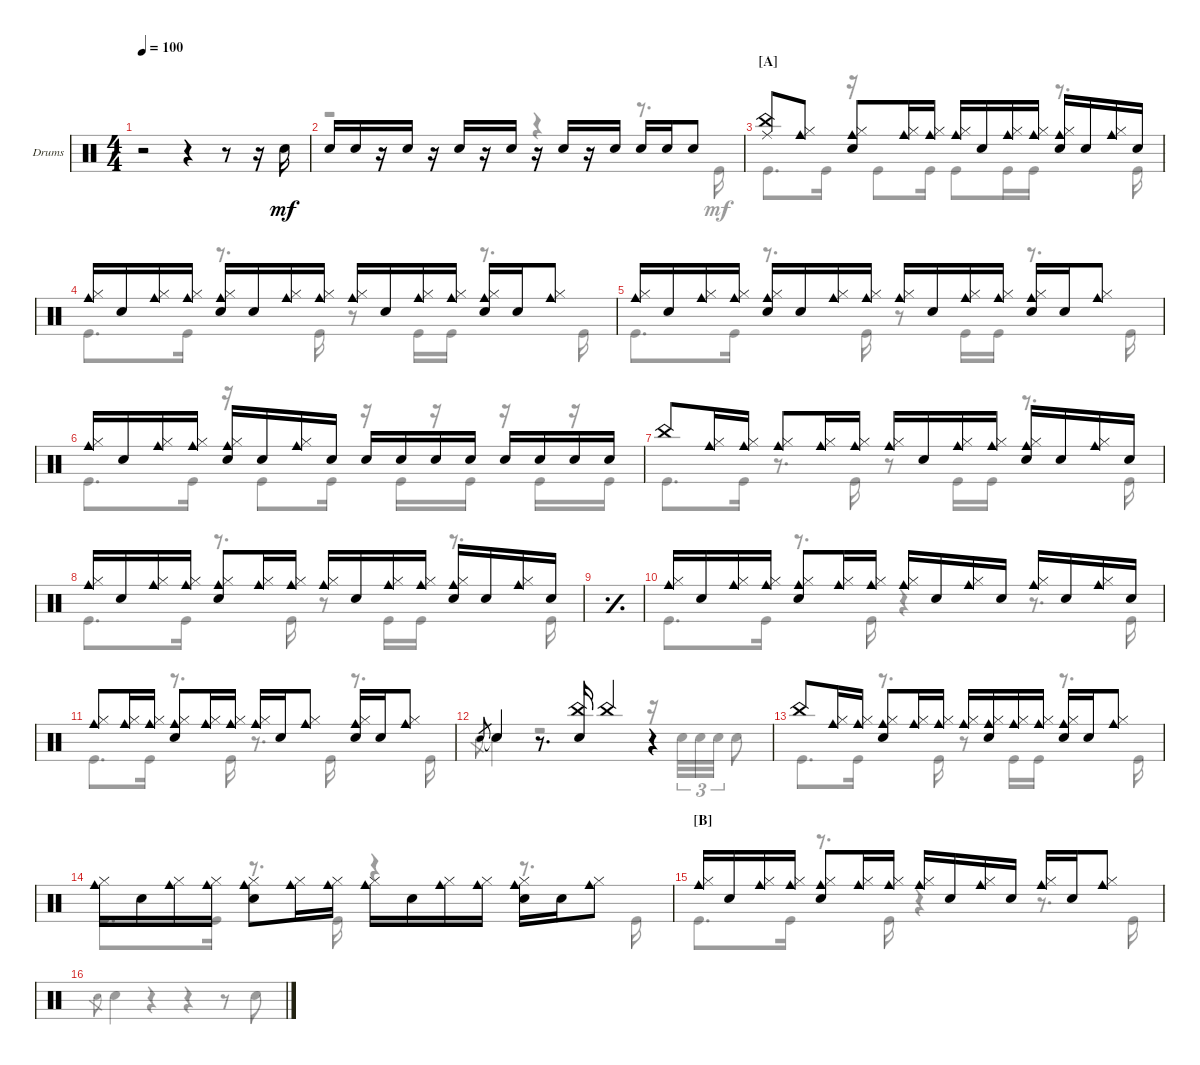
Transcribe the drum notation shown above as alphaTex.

\defaultSystemsLayout 4
\bracketExtendMode groupsimilarinstruments
\firstSystemTrackNameOrientation horizontal
\otherSystemsTrackNameOrientation horizontal
\track ("John Bonham" "Drums") {instrument percussion}
\staff {score}
\articulation defaults
\voice
\ts (4 4)
\tempo 100
\clef neutral
\ks c
r.2{dy mf} r.4 r.8 r.16 "Snare (hit) 2".16 |
\section ("" "")
"Snare (hit) 2".16 "Snare (hit) 2".16 r.16 "Snare (hit) 2".16 r.16 "Snare (hit) 2".16 r.16 "Snare (hit) 2".16 r.16 "Snare (hit) 2".16 r.16 "Snare (hit) 2".16 "Snare (hit) 2".16 "Snare (hit) 2".16 "Snare (hit) 2".8 |
\section ("A" "")
("China (hit)" "Ride (middle)").8 ("Hi-Hat (closed)" "Cowbell medium (hit)").8 ("Hi-Hat (closed)" "Cowbell medium (hit)" "Snare (hit) 2").8 ("Hi-Hat (closed)" "Cowbell medium (hit)").16 ("Hi-Hat (closed)" "Cowbell medium (hit)").16 ("Hi-Hat (closed)" "Cowbell medium (hit)").16 "Snare (hit) 2".16 ("Hi-Hat (closed)" "Cowbell medium (hit)").16 ("Hi-Hat (closed)" "Cowbell medium (hit)").16 ("Hi-Hat (closed)" "Cowbell medium (hit)" "Snare (hit) 2").16 "Snare (hit) 2".16 ("Hi-Hat (closed)" "Cowbell medium (hit)").16 "Snare (hit) 2".16 |
("Hi-Hat (closed)" "Cowbell medium (hit)").16 "Snare (hit) 2".16 ("Hi-Hat (closed)" "Cowbell medium (hit)").16 ("Hi-Hat (closed)" "Cowbell medium (hit)").16 ("Hi-Hat (closed)" "Cowbell medium (hit)" "Snare (hit) 2").16 "Snare (hit) 2".16 ("Hi-Hat (closed)" "Cowbell medium (hit)").16 ("Hi-Hat (closed)" "Cowbell medium (hit)").16 ("Hi-Hat (closed)" "Cowbell medium (hit)").16 "Snare (hit) 2".16 ("Hi-Hat (closed)" "Cowbell medium (hit)").16 ("Hi-Hat (closed)" "Cowbell medium (hit)").16 ("Hi-Hat (closed)" "Cowbell medium (hit)" "Snare (hit) 2").16 "Snare (hit) 2".16 ("Hi-Hat (closed)" "Cowbell medium (hit)").8 |
("Hi-Hat (closed)" "Cowbell medium (hit)").16 "Snare (hit) 2".16 ("Hi-Hat (closed)" "Cowbell medium (hit)").16 ("Hi-Hat (closed)" "Cowbell medium (hit)").16 ("Hi-Hat (closed)" "Cowbell medium (hit)" "Snare (hit) 2").16 "Snare (hit) 2".16 ("Hi-Hat (closed)" "Cowbell medium (hit)").16 ("Hi-Hat (closed)" "Cowbell medium (hit)").16 ("Hi-Hat (closed)" "Cowbell medium (hit)").16 "Snare (hit) 2".16 ("Hi-Hat (closed)" "Cowbell medium (hit)").16 ("Hi-Hat (closed)" "Cowbell medium (hit)").16 ("Hi-Hat (closed)" "Cowbell medium (hit)" "Snare (hit) 2").16 "Snare (hit) 2".16 ("Hi-Hat (closed)" "Cowbell medium (hit)").8 |
("Hi-Hat (closed)" "Cowbell medium (hit)").16 "Snare (hit) 2".16 ("Hi-Hat (closed)" "Cowbell medium (hit)").16 ("Hi-Hat (closed)" "Cowbell medium (hit)").16 ("Hi-Hat (closed)" "Cowbell medium (hit)" "Snare (hit) 2").16 "Snare (hit) 2".16 ("Hi-Hat (closed)" "Cowbell medium (hit)").16 "Snare (hit) 2".16 "Snare (hit) 2".16 "Snare (hit) 2".16 "Snare (hit) 2".16 "Snare (hit) 2".16 "Snare (hit) 2".16 "Snare (hit) 2".16 "Snare (hit) 2".16 "Snare (hit) 2".16 |
"China (hit)".8 ("Hi-Hat (closed)" "Cowbell medium (hit)").16 ("Hi-Hat (closed)" "Cowbell medium (hit)").16 ("Hi-Hat (closed)" "Cowbell medium (hit)").8 ("Hi-Hat (closed)" "Cowbell medium (hit)").16 ("Hi-Hat (closed)" "Cowbell medium (hit)").16 ("Hi-Hat (closed)" "Cowbell medium (hit)").16 "Snare (hit) 2".16 ("Hi-Hat (closed)" "Cowbell medium (hit)").16 ("Hi-Hat (closed)" "Cowbell medium (hit)").16 ("Hi-Hat (closed)" "Cowbell medium (hit)" "Snare (hit) 2").16 "Snare (hit) 2".16 ("Hi-Hat (closed)" "Cowbell medium (hit)").16 "Snare (hit) 2".16 |
("Hi-Hat (closed)" "Cowbell medium (hit)").16 "Snare (hit) 2".16 ("Hi-Hat (closed)" "Cowbell medium (hit)").16 ("Hi-Hat (closed)" "Cowbell medium (hit)").16 ("Hi-Hat (closed)" "Cowbell medium (hit)" "Snare (hit) 2").8 ("Hi-Hat (closed)" "Cowbell medium (hit)").16 ("Hi-Hat (closed)" "Cowbell medium (hit)").16 ("Hi-Hat (closed)" "Cowbell medium (hit)").16 "Snare (hit) 2".16 ("Hi-Hat (closed)" "Cowbell medium (hit)").16 ("Hi-Hat (closed)" "Cowbell medium (hit)").16 ("Hi-Hat (closed)" "Cowbell medium (hit)" "Snare (hit) 2").16 "Snare (hit) 2".16 ("Hi-Hat (closed)" "Cowbell medium (hit)").16 "Snare (hit) 2".16 |
\simile simple
|
\simile none
("Hi-Hat (closed)" "Cowbell medium (hit)").16 "Snare (hit) 2".16 ("Hi-Hat (closed)" "Cowbell medium (hit)").16 ("Hi-Hat (closed)" "Cowbell medium (hit)").16 ("Hi-Hat (closed)" "Cowbell medium (hit)" "Snare (hit) 2").8 ("Hi-Hat (closed)" "Cowbell medium (hit)").16 ("Hi-Hat (closed)" "Cowbell medium (hit)").16 ("Hi-Hat (closed)" "Cowbell medium (hit)").16 "Snare (hit) 2".16 ("Hi-Hat (closed)" "Cowbell medium (hit)").16 "Snare (hit) 2".16 ("Hi-Hat (closed)" "Cowbell medium (hit)").16 "Snare (hit) 2".16 ("Hi-Hat (closed)" "Cowbell medium (hit)").16 "Snare (hit) 2".16 |
("Hi-Hat (closed)" "Cowbell medium (hit)").8 ("Hi-Hat (closed)" "Cowbell medium (hit)").16 ("Hi-Hat (closed)" "Cowbell medium (hit)").16 ("Hi-Hat (closed)" "Cowbell medium (hit)" "Snare (hit) 2").8 ("Hi-Hat (closed)" "Cowbell medium (hit)").16 ("Hi-Hat (closed)" "Cowbell medium (hit)").16 ("Hi-Hat (closed)" "Cowbell medium (hit)").16 "Snare (hit) 2".16 ("Hi-Hat (closed)" "Cowbell medium (hit)").8 ("Hi-Hat (closed)" "Cowbell medium (hit)" "Snare (hit) 2").16 "Snare (hit) 2".16 ("Hi-Hat (closed)" "Cowbell medium (hit)").8 |
"Snare (hit) 2".8{gr} "Snare (hit) 2"{t}.4 r.8{d} ("China (hit)" "Snare (hit) 2").16 "China (hit)".4 r.4 |
"China (hit)".8 ("Hi-Hat (closed)" "Cowbell medium (hit)").16 ("Hi-Hat (closed)" "Cowbell medium (hit)").16 ("Hi-Hat (closed)" "Cowbell medium (hit)" "Snare (hit) 2").8 ("Hi-Hat (closed)" "Cowbell medium (hit)").16 ("Hi-Hat (closed)" "Cowbell medium (hit)").16 ("Hi-Hat (closed)" "Cowbell medium (hit)").16 ("Hi-Hat (closed)" "Cowbell medium (hit)" "Snare (hit) 2").16 ("Hi-Hat (closed)" "Cowbell medium (hit)").16 ("Hi-Hat (closed)" "Cowbell medium (hit)").16 ("Hi-Hat (closed)" "Cowbell medium (hit)" "Snare (hit) 2").16 "Snare (hit) 2".16 ("Hi-Hat (closed)" "Cowbell medium (hit)").8 |
("Hi-Hat (closed)" "Cowbell medium (hit)").16{beam invert} "Snare (hit) 2".16 ("Hi-Hat (closed)" "Cowbell medium (hit)").16 ("Hi-Hat (closed)" "Cowbell medium (hit)").16 ("Hi-Hat (closed)" "Cowbell medium (hit)" "Snare (hit) 2").8{beam invert} ("Hi-Hat (closed)" "Cowbell medium (hit)").16 ("Hi-Hat (closed)" "Cowbell medium (hit)").16 ("Hi-Hat (closed)" "Cowbell medium (hit)").16{beam invert} "Snare (hit) 2".16 ("Hi-Hat (closed)" "Cowbell medium (hit)").16 ("Hi-Hat (closed)" "Cowbell medium (hit)").16 ("Hi-Hat (closed)" "Cowbell medium (hit)" "Snare (hit) 2").16{beam invert} "Snare (hit) 2".16 ("Hi-Hat (closed)" "Cowbell medium (hit)").8 |
\section ("B" "")
("Hi-Hat (closed)" "Cowbell medium (hit)").16 "Snare (hit) 2".16 ("Hi-Hat (closed)" "Cowbell medium (hit)").16 ("Hi-Hat (closed)" "Cowbell medium (hit)").16 ("Hi-Hat (closed)" "Cowbell medium (hit)" "Snare (hit) 2").8 ("Hi-Hat (closed)" "Cowbell medium (hit)").16 ("Hi-Hat (closed)" "Cowbell medium (hit)").16 ("Hi-Hat (closed)" "Cowbell medium (hit)").16 "Snare (hit) 2".16 ("Hi-Hat (closed)" "Cowbell medium (hit)").16 "Snare (hit) 2".16 ("Hi-Hat (closed)" "Cowbell medium (hit)").16 "Snare (hit) 2".16 ("Hi-Hat (closed)" "Cowbell medium (hit)").8 |
\voice
\clef neutral
\ottava regular
\simile none
\ks c
|
r.2 r.4 r.8{d} "Kick (hit)".16 |
"Kick (hit)".8{d} "Kick (hit)".16 r.16 "Kick (hit)".8 "Kick (hit)".16 "Kick (hit)".8 "Kick (hit)".16 "Kick (hit)".16 r.8{d} "Kick (hit)".16 |
"Kick (hit)".8{d} "Kick (hit)".16 r.8{d} "Kick (hit)".16 r.8 "Kick (hit)".16 "Kick (hit)".16 r.8{d} "Kick (hit)".16 |
"Kick (hit)".8{d} "Kick (hit)".16 r.8{d} "Kick (hit)".16 r.8 "Kick (hit)".16 "Kick (hit)".16 r.8{d} "Kick (hit)".16 |
"Kick (hit)".8{d} "Kick (hit)".16 r.16 "Kick (hit)".8 "Kick (hit)".16 r.16 "Kick (hit)".16 r.16 "Kick (hit)".16 r.16 "Kick (hit)".16 r.16 "Kick (hit)".16 |
"Kick (hit)".8{d} "Kick (hit)".16 r.8{d} "Kick (hit)".16 r.8 "Kick (hit)".16 "Kick (hit)".16 r.8{d} "Kick (hit)".16 |
"Kick (hit)".8{d} "Kick (hit)".16 r.8{d} "Kick (hit)".16 r.8 "Kick (hit)".16 "Kick (hit)".16 r.8{d} "Kick (hit)".16 |
\simile simple
|
\simile none "Kick (hit)".8{d} "Kick (hit)".16
r.8{d} "Kick (hit)".16 r.4 r.8{d} "Kick (hit)".16 |
"Kick (hit)".8{d} "Kick (hit)".16 r.8{d} "Kick (hit)".16 r.8{d} "Kick (hit)".16 r.8{d} "Kick (hit)".16 |
"Snare (hit) 2".8{gr} "Snare (hit) 2"{t}.4 r.2 r.16 "Snare (hit) 2".32{tu (3 2)} "Snare (hit) 2".32{tu (3 2)} "Snare (hit) 2".32{tu (3 2)} "Snare (hit) 2".8 |
"Kick (hit)".8{d} "Kick (hit)".16 r.8{d} "Kick (hit)".16 r.8 "Kick (hit)".16 "Kick (hit)".16 r.8{d} "Kick (hit)".16 |
"Kick (hit)".8{d} "Kick (hit)".16 r.8{d} "Kick (hit)".16 r.4 r.8{d} "Kick (hit)".16 |
"Kick (hit)".8{d} "Kick (hit)".16 r.8{d} "Kick (hit)".16 r.4 r.8{d} "Kick (hit)".16 |
"Snare (hit) 2".8{gr} "Snare (hit) 2".4 r.4 r.4 r.8 "Snare (hit) 2".8
